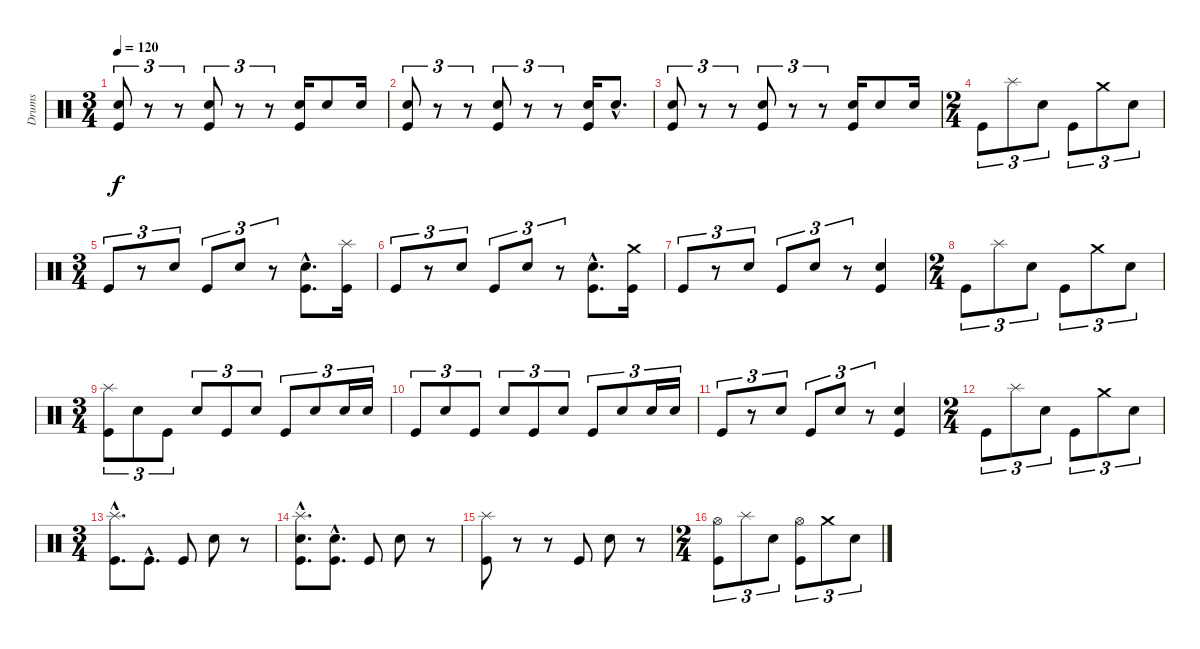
\track ("Drums" "Drums") {instrument percussion}
\staff {score}
\articulation defaults
\ts (3 4)
\tempo 120
\clef neutral
\ks c
("Snare (hit) 2" "Kick (hit)").8{tu (3 2) dy f} r.8{tu (3 2)} r.8{tu (3 2)} ("Snare (hit) 2" "Kick (hit)").8{tu (3 2)} r.8{tu (3 2)} r.8{tu (3 2)} ("Snare (hit) 2" "Kick (hit)").16 "Snare (hit) 2".8 "Snare (hit) 2".16 |
("Snare (hit) 2" "Kick (hit)").8{tu (3 2)} r.8{tu (3 2)} r.8{tu (3 2)} ("Snare (hit) 2" "Kick (hit)").8{tu (3 2)} r.8{tu (3 2)} r.8{tu (3 2)} ("Snare (hit) 2" "Kick (hit)").16 "Snare (hit) 2"{hac}.8{d} |
("Snare (hit) 2" "Kick (hit)").8{tu (3 2)} r.8{tu (3 2)} r.8{tu (3 2)} ("Snare (hit) 2" "Kick (hit)").8{tu (3 2)} r.8{tu (3 2)} r.8{tu (3 2)} ("Snare (hit) 2" "Kick (hit)").16 "Snare (hit) 2".8 "Snare (hit) 2".16 |
\ts (2 4)
"Kick (hit)".8{tu (3 2)} "Splash (hit)".8{tu (3 2)} "Snare (hit) 2".8{tu (3 2)} "Kick (hit)".8{tu (3 2)} "Crash medium (hit)".8{tu (3 2)} "Snare (hit) 2".8{tu (3 2)} |
\ts (3 4)
"Kick (hit)".8{tu (3 2)} r.8{tu (3 2)} "Snare (hit) 2".8{tu (3 2)} "Kick (hit)".8{tu (3 2)} "Snare (hit) 2".8{tu (3 2)} r.8{tu (3 2)} ("Snare (hit) 2"{hac} "Kick (hit)"{hac}).8{d} ("Splash (hit)" "Kick (hit)").16 |
"Kick (hit)".8{tu (3 2)} r.8{tu (3 2)} "Snare (hit) 2".8{tu (3 2)} "Kick (hit)".8{tu (3 2)} "Snare (hit) 2".8{tu (3 2)} r.8{tu (3 2)} ("Snare (hit) 2"{hac} "Kick (hit)"{hac}).8{d} ("Crash medium (hit)" "Kick (hit)").16 |
"Kick (hit)".8{tu (3 2)} r.8{tu (3 2)} "Snare (hit) 2".8{tu (3 2)} "Kick (hit)".8{tu (3 2)} "Snare (hit) 2".8{tu (3 2)} r.8{tu (3 2)} ("Snare (hit) 2" "Kick (hit)").4 |
\ts (2 4)
"Kick (hit)".8{tu (3 2)} "Splash (hit)".8{tu (3 2)} "Snare (hit) 2".8{tu (3 2)} "Kick (hit)".8{tu (3 2)} "Crash medium (hit)".8{tu (3 2)} "Snare (hit) 2".8{tu (3 2)} |
\ts (3 4)
("Splash (hit)" "Kick (hit)").8{tu (3 2)} "Snare (hit) 2".8{tu (3 2)} "Kick (hit)".8{tu (3 2)} "Snare (hit) 2".8{tu (3 2)} "Kick (hit)".8{tu (3 2)} "Snare (hit) 2".8{tu (3 2)} "Kick (hit)".8{tu (3 2)} "Snare (hit) 2".8{tu (3 2)} "Snare (hit) 2".16{tu (3 2)} "Snare (hit) 2".16{tu (3 2)} |
"Kick (hit)".8{tu (3 2)} "Snare (hit) 2".8{tu (3 2)} "Kick (hit)".8{tu (3 2)} "Snare (hit) 2".8{tu (3 2)} "Kick (hit)".8{tu (3 2)} "Snare (hit) 2".8{tu (3 2)} "Kick (hit)".8{tu (3 2)} "Snare (hit) 2".8{tu (3 2)} "Snare (hit) 2".16{tu (3 2)} "Snare (hit) 2".16{tu (3 2)} |
"Kick (hit)".8{tu (3 2)} r.8{tu (3 2)} "Snare (hit) 2".8{tu (3 2)} "Kick (hit)".8{tu (3 2)} "Snare (hit) 2".8{tu (3 2)} r.8{tu (3 2)} ("Snare (hit) 2" "Kick (hit)").4 |
\ts (2 4)
"Kick (hit)".8{tu (3 2)} "Splash (hit)".8{tu (3 2)} "Snare (hit) 2".8{tu (3 2)} "Kick (hit)".8{tu (3 2)} "Crash medium (hit)".8{tu (3 2)} "Snare (hit) 2".8{tu (3 2)} |
\ts (3 4)
("Splash (hit)"{hac} "Kick (hit)"{hac}).8{d} "Kick (hit)"{hac}.8{d} "Kick (hit)".8 "Snare (hit) 2".8 r.8 |
("Splash (hit)"{hac} "Snare (hit) 2"{hac} "Kick (hit)"{hac}).8{d} ("Snare (hit) 2"{hac} "Kick (hit)"{hac}).8{d} "Kick (hit)".8 "Snare (hit) 2".8 r.8 |
("Splash (hit)" "Kick (hit)").8 r.8 r.8 "Kick (hit)".8 "Snare (hit) 2".8 r.8 |
\ts (2 4)
("Hi-Hat (open)" "Kick (hit)").8{tu (3 2)} "Splash (hit)".8{tu (3 2)} "Snare (hit) 2".8{tu (3 2)} ("Hi-Hat (open)" "Kick (hit)").8{tu (3 2)} "Crash medium (hit)".8{tu (3 2)} "Snare (hit) 2".8{tu (3 2)}
